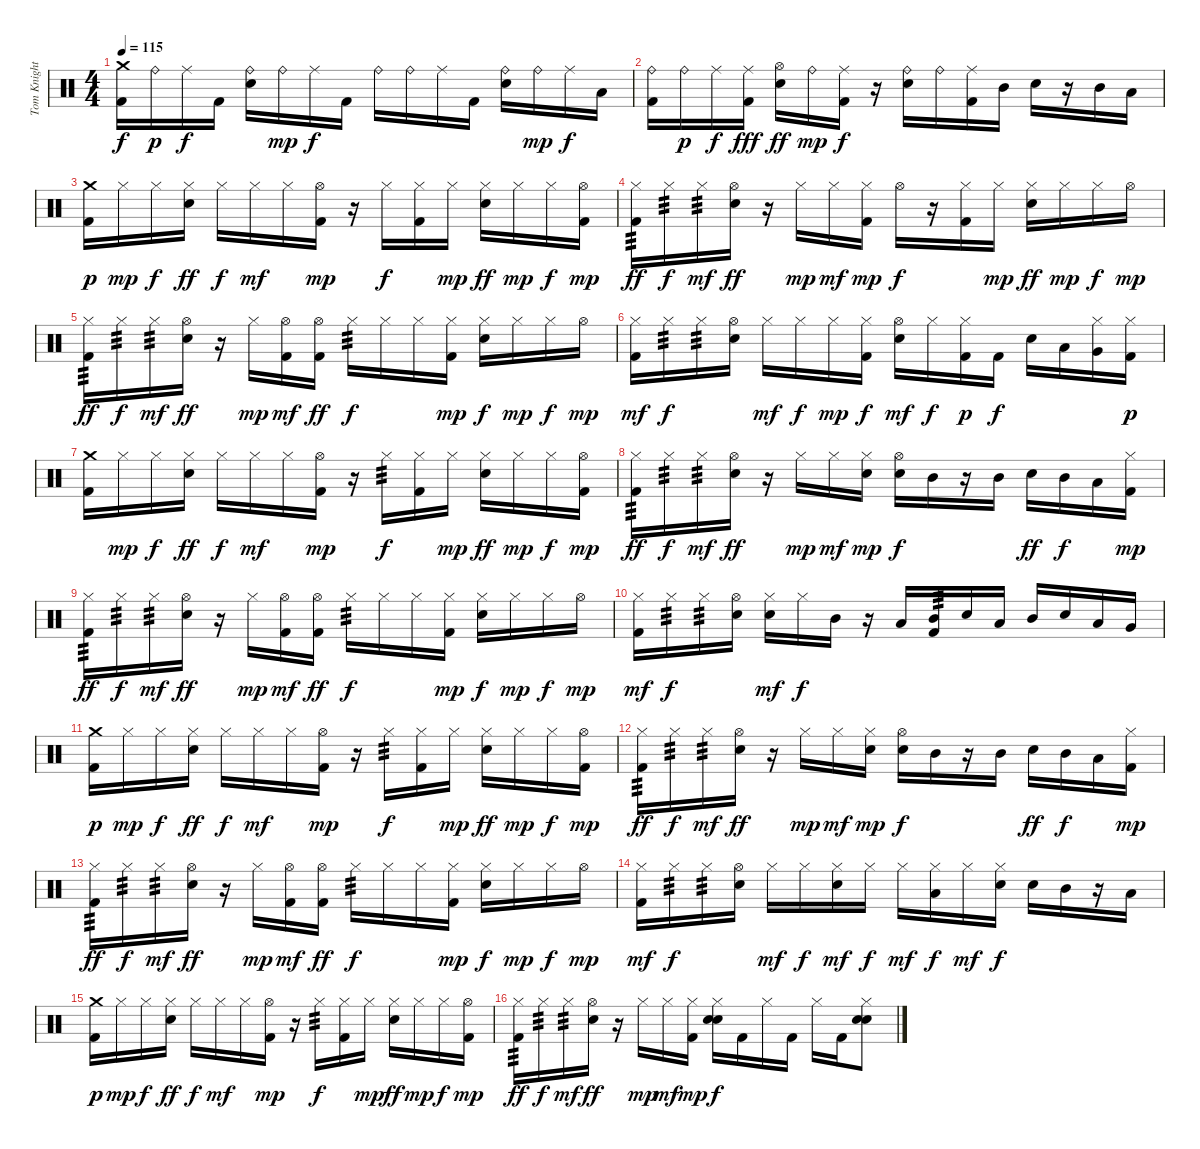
\track ("Tom Knight" "Tom Knight") {instrument percussion}
\staff {score}
\articulation defaults
\ts (4 4)
\tempo 115
\clef neutral
\ks c
("Crash medium (hit)" "Kick (hit) 2").16{dy f} "Ride (bell)".16{dy p} "Ride (middle)".16{dy f} "Kick (hit) 2".16 ("Ride (bell)" "Electric Snare (hit)").16 "Ride (bell)".16{dy mp} "Ride (middle)".16{dy f} "Kick (hit) 2".16 "Ride (bell)".16 "Ride (bell)".16 "Ride (middle)".16 "Kick (hit) 2".16 ("Ride (bell)" "Electric Snare (hit)").16 "Ride (bell)".16{dy mp} "Ride (middle)".16{dy f} "Low Tom (hit)".16 |
("Ride (bell)" "Kick (hit) 2").16 "Ride (bell)".16{dy p} "Ride (middle)".16{dy f} ("Ride (middle)" "Kick (hit) 2").16{dy fff} ("Hi-Hat (open)" "Electric Snare (hit)").16{dy ff} "Ride (bell)".16{dy mp} ("Ride (middle)" "Kick (hit) 2").16{dy f} r.16 ("Ride (bell)" "Electric Snare (hit)").16 "Ride (bell)".16 ("Ride (middle)" "Kick (hit) 2").16 "Mid Tom (hit)".16 "Electric Snare (hit)".16 r.16 "Mid Tom (hit)".16 "Low Tom (hit)".16 |
\section ("" "")
("Crash medium (hit)" "Kick (hit) 2").16{dy p} "Hi-Hat (closed)".16{dy mp} "Hi-Hat (closed)".16{dy f} ("Hi-Hat (closed)" "Electric Snare (hit)").16{dy ff} "Hi-Hat (closed)".16{dy f} "Hi-Hat (closed)".16{dy mf} "Hi-Hat (closed)".16 ("Hi-Hat (open)" "Kick (hit) 2").16{dy mp} r.16 "Hi-Hat (closed)".16{dy f} ("Hi-Hat (closed)" "Kick (hit) 2").16 "Hi-Hat (closed)".16{dy mp} ("Hi-Hat (closed)" "Electric Snare (hit)").16{dy ff} "Hi-Hat (closed)".16{dy mp} "Hi-Hat (closed)".16{dy f} ("Hi-Hat (open)" "Kick (hit) 2").16{dy mp} |
("Hi-Hat (closed)" "Kick (hit) 2").16{tp 3 dy ff} "Hi-Hat (closed)".16{tp 3 dy f} "Hi-Hat (closed)".16{tp 3 dy mf} ("Hi-Hat (open)" "Electric Snare (hit)").16{dy ff} r.16 "Hi-Hat (closed)".16{dy mp} "Hi-Hat (closed)".16{dy mf} ("Hi-Hat (closed)" "Kick (hit) 2").16{dy mp} "Hi-Hat (open)".16{dy f} r.16 ("Hi-Hat (closed)" "Kick (hit) 2").16 "Hi-Hat (closed)".16{dy mp} ("Hi-Hat (closed)" "Electric Snare (hit)").16{dy ff} "Hi-Hat (closed)".16{dy mp} "Hi-Hat (closed)".16{dy f} "Hi-Hat (open)".16{dy mp} |
("Hi-Hat (closed)" "Kick (hit) 2").16{tp 3 dy ff} "Hi-Hat (closed)".16{tp 3 dy f} "Hi-Hat (closed)".16{tp 3 dy mf} ("Hi-Hat (open)" "Electric Snare (hit)").16{dy ff} r.16 "Hi-Hat (closed)".16{dy mp} ("Hi-Hat (open)" "Kick (hit) 2").16{dy mf} ("Hi-Hat (open)" "Kick (hit) 2").16{dy ff} "Hi-Hat (closed)".16{tp 3 dy f} "Hi-Hat (closed)".16 "Hi-Hat (closed)".16 ("Hi-Hat (closed)" "Kick (hit) 2").16{dy mp} ("Hi-Hat (closed)" "Electric Snare (hit)").16{dy f} "Hi-Hat (closed)".16{dy mp} "Hi-Hat (closed)".16{dy f} "Hi-Hat (open)".16{dy mp} |
("Hi-Hat (closed)" "Kick (hit) 2").16{dy mf} "Hi-Hat (closed)".16{tp 3 dy f} "Hi-Hat (closed)".16{tp 3} ("Hi-Hat (open)" "Electric Snare (hit)").16 "Hi-Hat (closed)".16{dy mf} "Hi-Hat (closed)".16{dy f} "Hi-Hat (closed)".16{dy mp} ("Hi-Hat (closed)" "Kick (hit) 2").16{dy f} ("Hi-Hat (open)" "Electric Snare (hit)").16{dy mf} "Hi-Hat (closed)".16{dy f} ("Hi-Hat (closed)" "Kick (hit) 2").16{dy p} "Kick (hit) 2".16{dy f} "Electric Snare (hit)".16 "Low Tom (hit)".16 ("Hi-Hat (closed)" "Very Low Tom (hit)").16 ("Hi-Hat (closed)" "Kick (hit) 2").16{dy p} |
("Crash medium (hit)" "Kick (hit) 2").16 "Hi-Hat (closed)".16{dy mp} "Hi-Hat (closed)".16{dy f} ("Hi-Hat (closed)" "Electric Snare (hit)").16{dy ff} "Hi-Hat (closed)".16{dy f} "Hi-Hat (closed)".16{dy mf} "Hi-Hat (closed)".16 ("Hi-Hat (open)" "Kick (hit) 2").16{dy mp} r.16 "Hi-Hat (closed)".16{tp 3 dy f} ("Hi-Hat (closed)" "Kick (hit) 2").16 "Hi-Hat (closed)".16{dy mp} ("Hi-Hat (closed)" "Electric Snare (hit)").16{dy ff} "Hi-Hat (closed)".16{dy mp} "Hi-Hat (closed)".16{dy f} ("Hi-Hat (open)" "Kick (hit) 2").16{dy mp} |
("Hi-Hat (closed)" "Kick (hit) 2").16{tp 3 dy ff} "Hi-Hat (closed)".16{tp 3 dy f} "Hi-Hat (closed)".16{tp 3 dy mf} ("Hi-Hat (open)" "Electric Snare (hit)").16{dy ff} r.16 "Hi-Hat (closed)".16{dy mp} "Hi-Hat (closed)".16{dy mf} ("Hi-Hat (closed)" "Electric Snare (hit)").16{dy mp} ("Hi-Hat (open)" "Electric Snare (hit)").16{dy f} "Mid Tom (hit)".16 r.16 "Mid Tom (hit)".16 "Electric Snare (hit)".16{dy ff} "Mid Tom (hit)".16{dy f} "Low Tom (hit)".16 ("Hi-Hat (closed)" "Kick (hit) 2").16{dy mp} |
("Hi-Hat (closed)" "Kick (hit) 2").16{tp 3 dy ff} "Hi-Hat (closed)".16{tp 3 dy f} "Hi-Hat (closed)".16{tp 3 dy mf} ("Hi-Hat (open)" "Electric Snare (hit)").16{dy ff} r.16 "Hi-Hat (closed)".16{dy mp} ("Hi-Hat (open)" "Kick (hit) 2").16{dy mf} ("Hi-Hat (open)" "Kick (hit) 2").16{dy ff} "Hi-Hat (closed)".16{tp 3 dy f} "Hi-Hat (closed)".16 "Hi-Hat (closed)".16 ("Hi-Hat (closed)" "Kick (hit) 2").16{dy mp} ("Hi-Hat (closed)" "Electric Snare (hit)").16{dy f} "Hi-Hat (closed)".16{dy mp} "Hi-Hat (closed)".16{dy f} "Hi-Hat (open)".16{dy mp} |
("Hi-Hat (closed)" "Kick (hit) 2").16{dy mf} "Hi-Hat (closed)".16{tp 3 dy f} "Hi-Hat (closed)".16{tp 3} ("Hi-Hat (open)" "Electric Snare (hit)").16 ("Hi-Hat (closed)" "Electric Snare (hit)").16{dy mf} "Hi-Hat (closed)".16{dy f} "Mid Tom (hit)".16 r.16 "Low Tom (hit)".16 ("Mid Tom (hit)" "Kick (hit) 2").16{tp 3} "Electric Snare (hit)".16 "Low Tom (hit)".16 "Mid Tom (hit)".16 "Electric Snare (hit)".16 "Low Tom (hit)".16 "Very Low Tom (hit)".16 |
("Crash medium (hit)" "Kick (hit) 2").16{dy p} "Hi-Hat (closed)".16{dy mp} "Hi-Hat (closed)".16{dy f} ("Hi-Hat (closed)" "Electric Snare (hit)").16{dy ff} "Hi-Hat (closed)".16{dy f} "Hi-Hat (closed)".16{dy mf} "Hi-Hat (closed)".16 ("Hi-Hat (open)" "Kick (hit) 2").16{dy mp} r.16 "Hi-Hat (closed)".16{tp 3 dy f} ("Hi-Hat (closed)" "Kick (hit) 2").16 "Hi-Hat (closed)".16{dy mp} ("Hi-Hat (closed)" "Electric Snare (hit)").16{dy ff} "Hi-Hat (closed)".16{dy mp} "Hi-Hat (closed)".16{dy f} ("Hi-Hat (open)" "Kick (hit) 2").16{dy mp} |
("Hi-Hat (closed)" "Kick (hit) 2").16{tp 3 dy ff} "Hi-Hat (closed)".16{tp 3 dy f} "Hi-Hat (closed)".16{tp 3 dy mf} ("Hi-Hat (open)" "Electric Snare (hit)").16{dy ff} r.16 "Hi-Hat (closed)".16{dy mp} "Hi-Hat (closed)".16{dy mf} ("Hi-Hat (closed)" "Electric Snare (hit)").16{dy mp} ("Hi-Hat (open)" "Electric Snare (hit)").16{dy f} "Mid Tom (hit)".16 r.16 "Mid Tom (hit)".16 "Electric Snare (hit)".16{dy ff} "Mid Tom (hit)".16{dy f} "Low Tom (hit)".16 ("Hi-Hat (closed)" "Kick (hit) 2").16{dy mp} |
("Hi-Hat (closed)" "Kick (hit) 2").16{tp 3 dy ff} "Hi-Hat (closed)".16{tp 3 dy f} "Hi-Hat (closed)".16{tp 3 dy mf} ("Hi-Hat (open)" "Electric Snare (hit)").16{dy ff} r.16 "Hi-Hat (closed)".16{dy mp} ("Hi-Hat (open)" "Kick (hit) 2").16{dy mf} ("Hi-Hat (open)" "Kick (hit) 2").16{dy ff} "Hi-Hat (closed)".16{tp 3 dy f} "Hi-Hat (closed)".16 "Hi-Hat (closed)".16 ("Hi-Hat (closed)" "Kick (hit) 2").16{dy mp} ("Hi-Hat (closed)" "Electric Snare (hit)").16{dy f} "Hi-Hat (closed)".16{dy mp} "Hi-Hat (closed)".16{dy f} "Hi-Hat (open)".16{dy mp} |
("Hi-Hat (closed)" "Kick (hit) 2").16{dy mf} "Hi-Hat (closed)".16{tp 3 dy f} "Hi-Hat (closed)".16{tp 3} ("Hi-Hat (open)" "Electric Snare (hit)").16 "Hi-Hat (closed)".16{dy mf} "Hi-Hat (closed)".16{dy f} ("Hi-Hat (closed)" "Electric Snare (hit)").16{dy mf} "Hi-Hat (closed)".16{dy f} "Hi-Hat (closed)".16{dy mf} ("Hi-Hat (closed)" "Low Tom (hit)").16{dy f} "Hi-Hat (closed)".16{dy mf} ("Hi-Hat (closed)" "Electric Snare (hit)").16{dy f} "Electric Snare (hit)".16 "Mid Tom (hit)".16 r.16 "Low Tom (hit)".16 |
("Crash medium (hit)" "Kick (hit) 2").16{dy p} "Hi-Hat (closed)".16{dy mp} "Hi-Hat (closed)".16{dy f} ("Hi-Hat (closed)" "Electric Snare (hit)").16{dy ff} "Hi-Hat (closed)".16{dy f} "Hi-Hat (closed)".16{dy mf} "Hi-Hat (closed)".16 ("Hi-Hat (open)" "Kick (hit) 2").16{dy mp} r.16 "Hi-Hat (closed)".16{tp 3 dy f} ("Hi-Hat (closed)" "Kick (hit) 2").16 "Hi-Hat (closed)".16{dy mp} ("Hi-Hat (closed)" "Electric Snare (hit)").16{dy ff} "Hi-Hat (closed)".16{dy mp} "Hi-Hat (closed)".16{dy f} ("Hi-Hat (open)" "Kick (hit) 2").16{dy mp} |
("Hi-Hat (closed)" "Kick (hit) 2").16{tp 3 dy ff} "Hi-Hat (closed)".16{tp 3 dy f} "Hi-Hat (closed)".16{tp 3 dy mf} ("Hi-Hat (open)" "Electric Snare (hit)").16{dy ff} r.16 "Hi-Hat (closed)".16{dy mp} "Hi-Hat (closed)".16{dy mf} ("Hi-Hat (closed)" "Kick (hit) 2").16{dy mp} ("Hi-Hat (closed)" "Electric Snare (hit)" "Electric Snare (hit)").16{bd 480 dy f} "Kick (hit) 2".16 "Hi-Hat (closed)".16 "Kick (hit) 2".16 "Hi-Hat (closed)".16 "Kick (hit) 2".16 ("Hi-Hat (closed)" "Electric Snare (hit)" "Electric Snare (hit)").8{bd 480}
